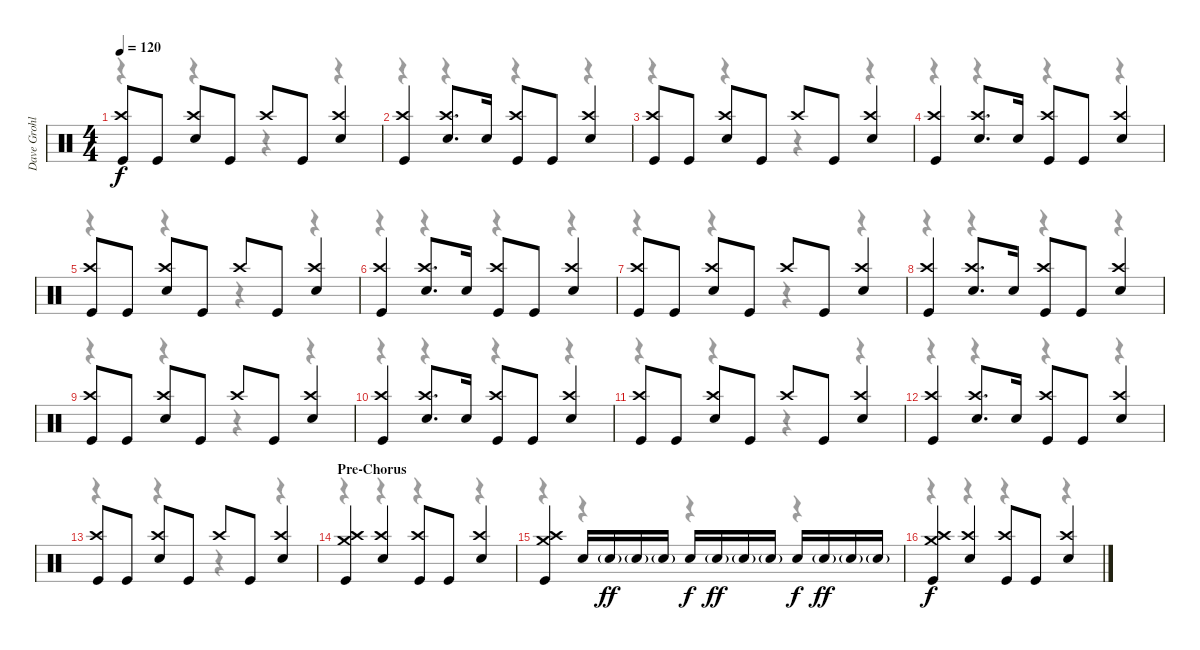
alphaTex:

\track ("Dave Grohl" "Dave Grohl") {instrument percussion}
\staff {score}
\articulation defaults
\voice
\ts (4 4)
\tempo 120
\clef neutral
\ks c
("Crash high (hit)" "Kick (hit)").8{dy f} "Kick (hit)".8 ("Crash high (hit)" "Snare (hit) 2").8 "Kick (hit)".8 "Crash high (hit)".8 "Kick (hit)".8 ("Crash high (hit)" "Snare (hit) 2").4 |
("Crash high (hit)" "Kick (hit)").4 ("Crash high (hit)" "Snare (hit) 2").8{d} "Snare (hit) 2".16 ("Crash high (hit)" "Kick (hit)").8 "Kick (hit)".8 ("Crash high (hit)" "Snare (hit) 2").4 |
("Crash high (hit)" "Kick (hit)").8 "Kick (hit)".8 ("Crash high (hit)" "Snare (hit) 2").8 "Kick (hit)".8 "Crash high (hit)".8 "Kick (hit)".8 ("Crash high (hit)" "Snare (hit) 2").4 |
("Crash high (hit)" "Kick (hit)").4 ("Crash high (hit)" "Snare (hit) 2").8{d} "Snare (hit) 2".16 ("Crash high (hit)" "Kick (hit)").8 "Kick (hit)".8 ("Crash high (hit)" "Snare (hit) 2").4 |
("Crash high (hit)" "Kick (hit)").8 "Kick (hit)".8 ("Crash high (hit)" "Snare (hit) 2").8 "Kick (hit)".8 "Crash high (hit)".8 "Kick (hit)".8 ("Crash high (hit)" "Snare (hit) 2").4 |
("Crash high (hit)" "Kick (hit)").4 ("Crash high (hit)" "Snare (hit) 2").8{d} "Snare (hit) 2".16 ("Crash high (hit)" "Kick (hit)").8 "Kick (hit)".8 ("Crash high (hit)" "Snare (hit) 2").4 |
("Crash high (hit)" "Kick (hit)").8 "Kick (hit)".8 ("Crash high (hit)" "Snare (hit) 2").8 "Kick (hit)".8 "Crash high (hit)".8 "Kick (hit)".8 ("Crash high (hit)" "Snare (hit) 2").4 |
("Crash high (hit)" "Kick (hit)").4 ("Crash high (hit)" "Snare (hit) 2").8{d} "Snare (hit) 2".16 ("Crash high (hit)" "Kick (hit)").8 "Kick (hit)".8 ("Crash high (hit)" "Snare (hit) 2").4 |
("Crash high (hit)" "Kick (hit)").8 "Kick (hit)".8 ("Crash high (hit)" "Snare (hit) 2").8 "Kick (hit)".8 "Crash high (hit)".8 "Kick (hit)".8 ("Crash high (hit)" "Snare (hit) 2").4 |
("Crash high (hit)" "Kick (hit)").4 ("Crash high (hit)" "Snare (hit) 2").8{d} "Snare (hit) 2".16 ("Crash high (hit)" "Kick (hit)").8 "Kick (hit)".8 ("Crash high (hit)" "Snare (hit) 2").4 |
("Crash high (hit)" "Kick (hit)").8 "Kick (hit)".8 ("Crash high (hit)" "Snare (hit) 2").8 "Kick (hit)".8 "Crash high (hit)".8 "Kick (hit)".8 ("Crash high (hit)" "Snare (hit) 2").4 |
("Crash high (hit)" "Kick (hit)").4 ("Crash high (hit)" "Snare (hit) 2").8{d} "Snare (hit) 2".16 ("Crash high (hit)" "Kick (hit)").8 "Kick (hit)".8 ("Crash high (hit)" "Snare (hit) 2").4 |
("Crash high (hit)" "Kick (hit)").8 "Kick (hit)".8 ("Crash high (hit)" "Snare (hit) 2").8 "Kick (hit)".8 "Crash high (hit)".8 "Kick (hit)".8 ("Crash high (hit)" "Snare (hit) 2").4 |
\section ("" "Pre-Chorus")
("Crash medium (hit)" "Crash high (hit)" "Kick (hit)").4 ("Crash high (hit)" "Snare (hit) 2").4 ("Crash high (hit)" "Kick (hit)").8 "Kick (hit)".8 ("Crash high (hit)" "Snare (hit) 2").4 |
("Crash medium (hit)" "Crash high (hit)" "Kick (hit)").4 "Snare (hit) 2".16 "Snare (hit) 2"{g}.16{dy ff} "Snare (hit) 2"{g}.16 "Snare (hit) 2"{g}.16 "Snare (hit) 2".16{dy f} "Snare (hit) 2"{g}.16{dy ff} "Snare (hit) 2"{g}.16 "Snare (hit) 2"{g}.16 "Snare (hit) 2".16{dy f} "Snare (hit) 2"{g}.16{dy ff} "Snare (hit) 2"{g}.16 "Snare (hit) 2"{g}.16 |
("Crash medium (hit)" "Crash high (hit)" "Kick (hit)").4{dy f} ("Crash high (hit)" "Snare (hit) 2").4 ("Crash high (hit)" "Kick (hit)").8 "Kick (hit)".8 ("Crash high (hit)" "Snare (hit) 2").4
\voice
\clef neutral
\ottava regular
\simile none
\ks c
r.4{dy f} r.4 r.4 r.4 |
r.4 r.4 r.4 r.4 |
r.4 r.4 r.4 r.4 |
r.4 r.4 r.4 r.4 |
r.4 r.4 r.4 r.4 |
r.4 r.4 r.4 r.4 |
r.4 r.4 r.4 r.4 |
r.4 r.4 r.4 r.4 |
r.4 r.4 r.4 r.4 |
r.4 r.4 r.4 r.4 |
r.4 r.4 r.4 r.4 |
r.4 r.4 r.4 r.4 |
r.4 r.4 r.4 r.4 |
r.4 r.4 r.4 r.4 |
r.4 r.4 r.4 r.4 |
r.4 r.4 r.4 r.4
